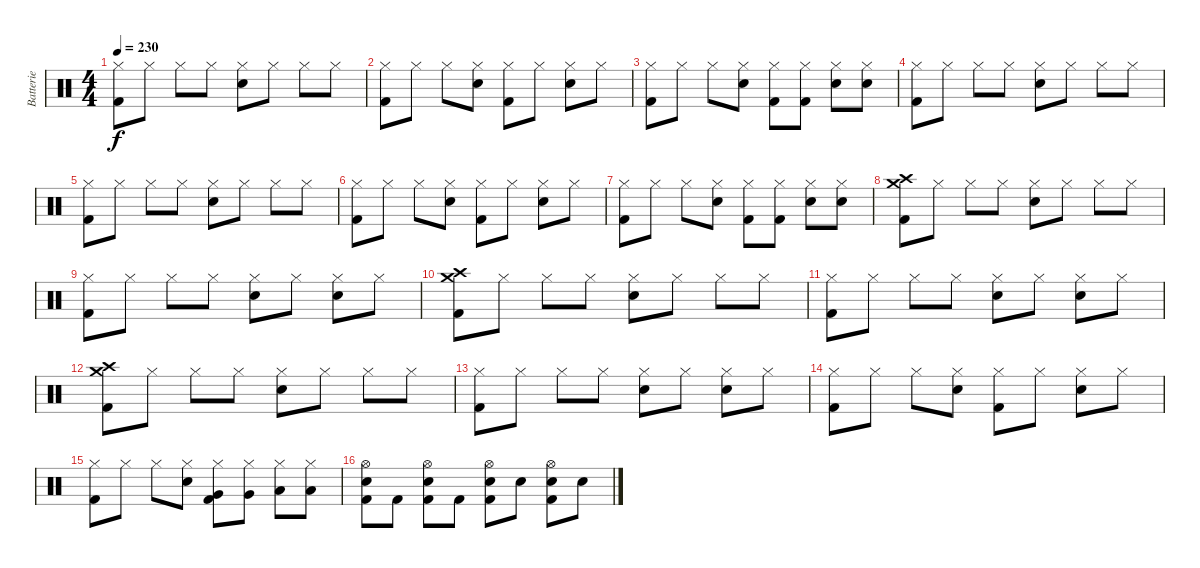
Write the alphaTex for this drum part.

\track ("Batterie" "Batterie") {instrument percussion}
\staff {score}
\articulation defaults
\ts (4 4)
\tempo 230
\clef neutral
\ks c
("Hi-Hat (closed)" "Kick (hit) 2").8{dy f} "Hi-Hat (closed)".8 "Hi-Hat (closed)".8 "Hi-Hat (closed)".8 ("Hi-Hat (closed)" "Electric Snare (hit)").8 "Hi-Hat (closed)".8 "Hi-Hat (closed)".8 "Hi-Hat (closed)".8 |
("Hi-Hat (closed)" "Kick (hit) 2").8 "Hi-Hat (closed)".8 "Hi-Hat (closed)".8 ("Hi-Hat (closed)" "Electric Snare (hit)").8 ("Hi-Hat (closed)" "Kick (hit) 2").8 "Hi-Hat (closed)".8 ("Hi-Hat (closed)" "Electric Snare (hit)").8 "Hi-Hat (closed)".8 |
("Hi-Hat (closed)" "Kick (hit) 2").8 "Hi-Hat (closed)".8 "Hi-Hat (closed)".8 ("Hi-Hat (closed)" "Electric Snare (hit)").8 ("Hi-Hat (closed)" "Kick (hit) 2").8 ("Hi-Hat (closed)" "Kick (hit) 2").8 ("Hi-Hat (closed)" "Electric Snare (hit)").8 ("Hi-Hat (closed)" "Electric Snare (hit)").8 |
("Hi-Hat (closed)" "Kick (hit) 2").8 "Hi-Hat (closed)".8 "Hi-Hat (closed)".8 "Hi-Hat (closed)".8 ("Hi-Hat (closed)" "Electric Snare (hit)").8 "Hi-Hat (closed)".8 "Hi-Hat (closed)".8 "Hi-Hat (closed)".8 |
("Hi-Hat (closed)" "Kick (hit) 2").8 "Hi-Hat (closed)".8 "Hi-Hat (closed)".8 "Hi-Hat (closed)".8 ("Hi-Hat (closed)" "Electric Snare (hit)").8 "Hi-Hat (closed)".8 "Hi-Hat (closed)".8 "Hi-Hat (closed)".8 |
("Hi-Hat (closed)" "Kick (hit) 2").8 "Hi-Hat (closed)".8 "Hi-Hat (closed)".8 ("Hi-Hat (closed)" "Electric Snare (hit)").8 ("Hi-Hat (closed)" "Kick (hit) 2").8 "Hi-Hat (closed)".8 ("Hi-Hat (closed)" "Electric Snare (hit)").8 "Hi-Hat (closed)".8 |
("Hi-Hat (closed)" "Kick (hit) 2").8 "Hi-Hat (closed)".8 "Hi-Hat (closed)".8 ("Hi-Hat (closed)" "Electric Snare (hit)").8 ("Hi-Hat (closed)" "Kick (hit) 2").8 ("Hi-Hat (closed)" "Kick (hit) 2").8 ("Hi-Hat (closed)" "Electric Snare (hit)").8 ("Hi-Hat (closed)" "Electric Snare (hit)").8 |
("Crash high (hit)" "Crash medium (hit)" "Kick (hit) 2").8 "Hi-Hat (closed)".8 "Hi-Hat (closed)".8 "Hi-Hat (closed)".8 ("Hi-Hat (closed)" "Electric Snare (hit)").8 "Hi-Hat (closed)".8 "Hi-Hat (closed)".8 "Hi-Hat (closed)".8 |
("Hi-Hat (closed)" "Kick (hit) 2").8 "Hi-Hat (closed)".8 "Hi-Hat (closed)".8 "Hi-Hat (closed)".8 ("Hi-Hat (closed)" "Electric Snare (hit)").8 "Hi-Hat (closed)".8 ("Hi-Hat (closed)" "Electric Snare (hit)").8 "Hi-Hat (closed)".8 |
("Crash high (hit)" "Crash medium (hit)" "Kick (hit) 2").8 "Hi-Hat (closed)".8 "Hi-Hat (closed)".8 "Hi-Hat (closed)".8 ("Hi-Hat (closed)" "Electric Snare (hit)").8 "Hi-Hat (closed)".8 "Hi-Hat (closed)".8 "Hi-Hat (closed)".8 |
("Hi-Hat (closed)" "Kick (hit) 2").8 "Hi-Hat (closed)".8 "Hi-Hat (closed)".8 "Hi-Hat (closed)".8 ("Hi-Hat (closed)" "Electric Snare (hit)").8 "Hi-Hat (closed)".8 ("Hi-Hat (closed)" "Electric Snare (hit)").8 "Hi-Hat (closed)".8 |
("Crash high (hit)" "Crash medium (hit)" "Kick (hit) 2").8 "Hi-Hat (closed)".8 "Hi-Hat (closed)".8 "Hi-Hat (closed)".8 ("Hi-Hat (closed)" "Electric Snare (hit)").8 "Hi-Hat (closed)".8 "Hi-Hat (closed)".8 "Hi-Hat (closed)".8 |
("Hi-Hat (closed)" "Kick (hit) 2").8 "Hi-Hat (closed)".8 "Hi-Hat (closed)".8 "Hi-Hat (closed)".8 ("Hi-Hat (closed)" "Electric Snare (hit)").8 "Hi-Hat (closed)".8 ("Hi-Hat (closed)" "Electric Snare (hit)").8 "Hi-Hat (closed)".8 |
("Hi-Hat (closed)" "Kick (hit) 2").8 "Hi-Hat (closed)".8 "Hi-Hat (closed)".8 ("Hi-Hat (closed)" "Electric Snare (hit)").8 ("Hi-Hat (closed)" "Kick (hit) 2").8 "Hi-Hat (closed)".8 ("Hi-Hat (closed)" "Electric Snare (hit)").8 "Hi-Hat (closed)".8 |
("Hi-Hat (closed)" "Kick (hit) 2").8 "Hi-Hat (closed)".8 "Hi-Hat (closed)".8 ("Hi-Hat (closed)" "Electric Snare (hit)").8 ("Hi-Hat (closed)" "Very Low Tom (hit)" "Kick (hit) 2").8 ("Hi-Hat (closed)" "Very Low Tom (hit)").8 ("Hi-Hat (closed)" "Low Floor Tom (hit)").8 ("Hi-Hat (closed)" "Low Floor Tom (hit)").8 |
("Hi-Hat (open)" "Electric Snare (hit)" "Kick (hit) 2").8 "Kick (hit) 2".8 ("Hi-Hat (open)" "Electric Snare (hit)" "Kick (hit) 2").8 "Kick (hit) 2".8 ("Hi-Hat (open)" "Electric Snare (hit)" "Kick (hit) 2").8 "Electric Snare (hit)".8 ("Hi-Hat (open)" "Electric Snare (hit)" "Kick (hit) 2").8 "Electric Snare (hit)".8
